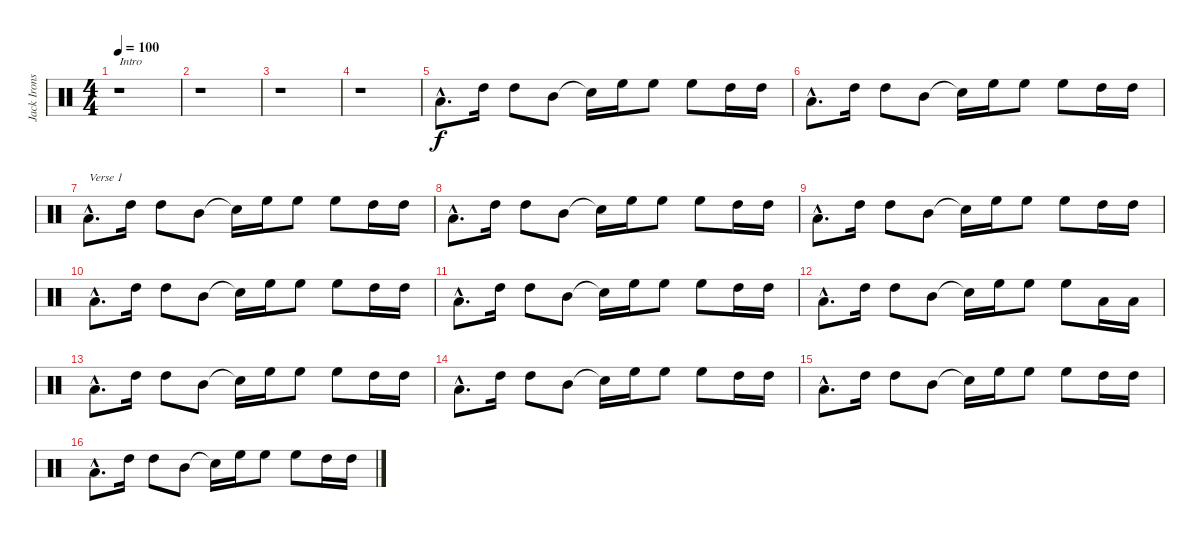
\track ("Jack Irons" "Jack Irons") {instrument percussion}
\staff {score}
\articulation defaults
\ts (4 4)
\tempo 100
\clef neutral
\ks c
r.1{txt "Intro" dy f} |
r.1 |
r.1 |
r.1 |
"Low Floor Tom (hit)"{hac}.8{d} "High Tom (hit)".16 "High Tom (hit)".8 "Mid Tom (hit)".8 "Snare (hit)"{t}.16 "High Floor Tom (hit)".16 "High Floor Tom (hit)".8 "High Floor Tom (hit)".8 "High Tom (hit)".16 "High Tom (hit)".16 |
"Low Floor Tom (hit)"{hac}.8{d} "High Tom (hit)".16 "High Tom (hit)".8 "Mid Tom (hit)".8 "Snare (hit)"{t}.16 "High Floor Tom (hit)".16 "High Floor Tom (hit)".8 "High Floor Tom (hit)".8 "High Tom (hit)".16 "High Tom (hit)".16 |
"Low Floor Tom (hit)"{hac}.8{d txt "Verse 1"} "High Tom (hit)".16 "High Tom (hit)".8 "Mid Tom (hit)".8 "Snare (hit)"{t}.16 "High Floor Tom (hit)".16 "High Floor Tom (hit)".8 "High Floor Tom (hit)".8 "High Tom (hit)".16 "High Tom (hit)".16 |
"Low Floor Tom (hit)"{hac}.8{d} "High Tom (hit)".16 "High Tom (hit)".8 "Mid Tom (hit)".8 "Snare (hit)"{t}.16 "High Floor Tom (hit)".16 "High Floor Tom (hit)".8 "High Floor Tom (hit)".8 "High Tom (hit)".16 "High Tom (hit)".16 |
"Low Floor Tom (hit)"{hac}.8{d} "High Tom (hit)".16 "High Tom (hit)".8 "Mid Tom (hit)".8 "Snare (hit)"{t}.16 "High Floor Tom (hit)".16 "High Floor Tom (hit)".8 "High Floor Tom (hit)".8 "High Tom (hit)".16 "High Tom (hit)".16 |
"Low Floor Tom (hit)"{hac}.8{d} "High Tom (hit)".16 "High Tom (hit)".8 "Mid Tom (hit)".8 "Snare (hit)"{t}.16 "High Floor Tom (hit)".16 "High Floor Tom (hit)".8 "High Floor Tom (hit)".8 "High Tom (hit)".16 "High Tom (hit)".16 |
"Low Floor Tom (hit)"{hac}.8{d} "High Tom (hit)".16 "High Tom (hit)".8 "Mid Tom (hit)".8 "Snare (hit)"{t}.16 "High Floor Tom (hit)".16 "High Floor Tom (hit)".8 "High Floor Tom (hit)".8 "High Tom (hit)".16 "High Tom (hit)".16 |
"Low Floor Tom (hit)"{hac}.8{d} "High Tom (hit)".16 "High Tom (hit)".8 "Mid Tom (hit)".8 "Snare (hit)"{t}.16 "High Floor Tom (hit)".16 "High Floor Tom (hit)".8 "High Floor Tom (hit)".8 "Low Floor Tom (hit)".16 "Low Floor Tom (hit)".16 |
"Low Floor Tom (hit)"{hac}.8{d} "High Tom (hit)".16 "High Tom (hit)".8 "Mid Tom (hit)".8 "Snare (hit)"{t}.16 "High Floor Tom (hit)".16 "High Floor Tom (hit)".8 "High Floor Tom (hit)".8 "High Tom (hit)".16 "High Tom (hit)".16 |
"Low Floor Tom (hit)"{hac}.8{d} "High Tom (hit)".16 "High Tom (hit)".8 "Mid Tom (hit)".8 "Snare (hit)"{t}.16 "High Floor Tom (hit)".16 "High Floor Tom (hit)".8 "High Floor Tom (hit)".8 "High Tom (hit)".16 "High Tom (hit)".16 |
"Low Floor Tom (hit)"{hac}.8{d} "High Tom (hit)".16 "High Tom (hit)".8 "Mid Tom (hit)".8 "Snare (hit)"{t}.16 "High Floor Tom (hit)".16 "High Floor Tom (hit)".8 "High Floor Tom (hit)".8 "High Tom (hit)".16 "High Tom (hit)".16 |
"Low Floor Tom (hit)"{hac}.8{d} "High Tom (hit)".16 "High Tom (hit)".8 "Mid Tom (hit)".8 "Snare (hit)"{t}.16 "High Floor Tom (hit)".16 "High Floor Tom (hit)".8 "High Floor Tom (hit)".8 "High Tom (hit)".16 "High Tom (hit)".16
